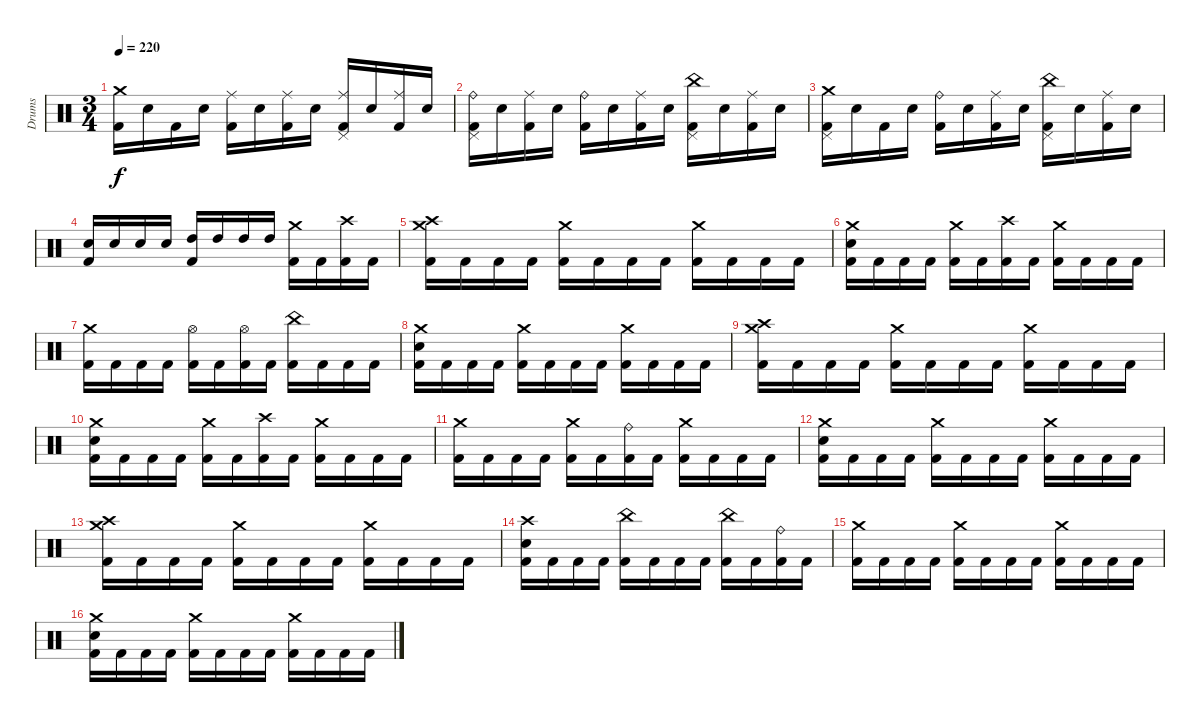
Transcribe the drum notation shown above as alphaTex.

\track ("Drums" "Drums") {instrument percussion}
\staff
\articulation defaults
\ts (3 4)
\tempo 220
\clef neutral
\ks c
("Crash medium (hit)" "Kick (hit) 2").16{dy f} "Electric Snare (hit)".16 "Kick (hit) 2".16 "Electric Snare (hit)".16 ("Ride (middle)" "Kick (hit) 2").16 "Electric Snare (hit)".16 ("Ride (middle)" "Kick (hit) 2").16 "Electric Snare (hit)".16 ("Pedal Hi-Hat (hit)" "Ride (middle)" "Kick (hit) 2").16 "Electric Snare (hit)".16 ("Ride (middle)" "Kick (hit) 2").16 "Electric Snare (hit)".16 |
("Pedal Hi-Hat (hit)" "Ride (bell)" "Kick (hit) 2").16 "Electric Snare (hit)".16 ("Ride (middle)" "Kick (hit) 2").16 "Electric Snare (hit)".16 ("Ride (bell)" "Kick (hit) 2").16 "Electric Snare (hit)".16 ("Ride (middle)" "Kick (hit) 2").16 "Electric Snare (hit)".16 ("Pedal Hi-Hat (hit)" "China (hit)" "Kick (hit) 2").16 "Electric Snare (hit)".16 ("Ride (middle)" "Kick (hit) 2").16 "Electric Snare (hit)".16 |
("Pedal Hi-Hat (hit)" "Crash medium (hit)" "Kick (hit) 2").16 "Electric Snare (hit)".16 "Kick (hit) 2".16 "Electric Snare (hit)".16 ("Ride (bell)" "Kick (hit) 2").16 "Electric Snare (hit)".16 ("Ride (middle)" "Kick (hit) 2").16 "Electric Snare (hit)".16 ("Pedal Hi-Hat (hit)" "China (hit)" "Kick (hit) 2").16 "Electric Snare (hit)".16 ("Ride (middle)" "Kick (hit) 2").16 "Electric Snare (hit)".16 |
("Electric Snare (hit)" "Kick (hit) 2").16 "Electric Snare (hit)".16 "Electric Snare (hit)".16 "Electric Snare (hit)".16 ("High Tom (hit)" "Kick (hit) 2").16 "High Tom (hit)".16 "High Tom (hit)".16 "High Tom (hit)".16 ("Crash medium (hit)" "Kick (hit) 2").16 "Kick (hit) 2".16 ("Crash high (hit)" "Kick (hit) 2").16 "Kick (hit) 2".16 |
("Crash medium (hit)" "Crash high (hit)" "Kick (hit) 2").16 "Kick (hit) 2".16 "Kick (hit) 2".16 "Kick (hit) 2".16 ("Crash medium (hit)" "Kick (hit) 2").16 "Kick (hit) 2".16 "Kick (hit) 2".16 "Kick (hit) 2".16 ("Crash medium (hit)" "Kick (hit) 2").16 "Kick (hit) 2".16 "Kick (hit) 2".16 "Kick (hit) 2".16 |
("Crash medium (hit)" "Electric Snare (hit)" "Kick (hit) 2").16 "Kick (hit) 2".16 "Kick (hit) 2".16 "Kick (hit) 2".16 ("Crash medium (hit)" "Kick (hit) 2").16 "Kick (hit) 2".16 ("Crash high (hit)" "Kick (hit) 2").16 "Kick (hit) 2".16 ("Crash medium (hit)" "Kick (hit) 2").16 "Kick (hit) 2".16 "Kick (hit) 2".16 "Kick (hit) 2".16 |
("Crash medium (hit)" "Kick (hit) 2").16 "Kick (hit) 2".16 "Kick (hit) 2".16 "Kick (hit) 2".16 ("Hi-Hat (open)" "Kick (hit) 2").16 "Kick (hit) 2".16 ("Hi-Hat (open)" "Kick (hit) 2").16 "Kick (hit) 2".16 ("China (hit)" "Kick (hit) 2").16 "Kick (hit) 2".16 "Kick (hit) 2".16 "Kick (hit) 2".16 |
("Crash medium (hit)" "Electric Snare (hit)" "Kick (hit) 2").16 "Kick (hit) 2".16 "Kick (hit) 2".16 "Kick (hit) 2".16 ("Crash medium (hit)" "Kick (hit) 2").16 "Kick (hit) 2".16 "Kick (hit) 2".16 "Kick (hit) 2".16 ("Crash medium (hit)" "Kick (hit) 2").16 "Kick (hit) 2".16 "Kick (hit) 2".16 "Kick (hit) 2".16 |
("Crash medium (hit)" "Crash high (hit)" "Kick (hit) 2").16 "Kick (hit) 2".16 "Kick (hit) 2".16 "Kick (hit) 2".16 ("Crash medium (hit)" "Kick (hit) 2").16 "Kick (hit) 2".16 "Kick (hit) 2".16 "Kick (hit) 2".16 ("Crash medium (hit)" "Kick (hit) 2").16 "Kick (hit) 2".16 "Kick (hit) 2".16 "Kick (hit) 2".16 |
("Crash medium (hit)" "Electric Snare (hit)" "Kick (hit) 2").16 "Kick (hit) 2".16 "Kick (hit) 2".16 "Kick (hit) 2".16 ("Crash medium (hit)" "Kick (hit) 2").16 "Kick (hit) 2".16 ("Crash high (hit)" "Kick (hit) 2").16 "Kick (hit) 2".16 ("Crash medium (hit)" "Kick (hit) 2").16 "Kick (hit) 2".16 "Kick (hit) 2".16 "Kick (hit) 2".16 |
("Crash medium (hit)" "Kick (hit) 2").16 "Kick (hit) 2".16 "Kick (hit) 2".16 "Kick (hit) 2".16 ("Crash medium (hit)" "Kick (hit) 2").16 "Kick (hit) 2".16 ("Ride (bell)" "Kick (hit) 2").16 "Kick (hit) 2".16 ("Crash medium (hit)" "Kick (hit) 2").16 "Kick (hit) 2".16 "Kick (hit) 2".16 "Kick (hit) 2".16 |
("Crash medium (hit)" "Electric Snare (hit)" "Kick (hit) 2").16 "Kick (hit) 2".16 "Kick (hit) 2".16 "Kick (hit) 2".16 ("Crash medium (hit)" "Kick (hit) 2").16 "Kick (hit) 2".16 "Kick (hit) 2".16 "Kick (hit) 2".16 ("Crash medium (hit)" "Kick (hit) 2").16 "Kick (hit) 2".16 "Kick (hit) 2".16 "Kick (hit) 2".16 |
("Crash medium (hit)" "Crash high (hit)" "Kick (hit) 2").16 "Kick (hit) 2".16 "Kick (hit) 2".16 "Kick (hit) 2".16 ("Crash medium (hit)" "Kick (hit) 2").16 "Kick (hit) 2".16 "Kick (hit) 2".16 "Kick (hit) 2".16 ("Crash medium (hit)" "Kick (hit) 2").16 "Kick (hit) 2".16 "Kick (hit) 2".16 "Kick (hit) 2".16 |
("Crash high (hit)" "Electric Snare (hit)" "Kick (hit) 2").16 "Kick (hit) 2".16 "Kick (hit) 2".16 "Kick (hit) 2".16 ("China (hit)" "Kick (hit) 2").16 "Kick (hit) 2".16 "Kick (hit) 2".16 "Kick (hit) 2".16 ("China (hit)" "Kick (hit) 2").16 "Kick (hit) 2".16 ("Ride (bell)" "Kick (hit) 2").16 "Kick (hit) 2".16 |
("Crash medium (hit)" "Kick (hit) 2").16 "Kick (hit) 2".16 "Kick (hit) 2".16 "Kick (hit) 2".16 ("Crash medium (hit)" "Kick (hit) 2").16 "Kick (hit) 2".16 "Kick (hit) 2".16 "Kick (hit) 2".16 ("Crash medium (hit)" "Kick (hit) 2").16 "Kick (hit) 2".16 "Kick (hit) 2".16 "Kick (hit) 2".16 |
("Crash medium (hit)" "Electric Snare (hit)" "Kick (hit) 2").16 "Kick (hit) 2".16 "Kick (hit) 2".16 "Kick (hit) 2".16 ("Crash medium (hit)" "Kick (hit) 2").16 "Kick (hit) 2".16 "Kick (hit) 2".16 "Kick (hit) 2".16 ("Crash medium (hit)" "Kick (hit) 2").16 "Kick (hit) 2".16 "Kick (hit) 2".16 "Kick (hit) 2".16
